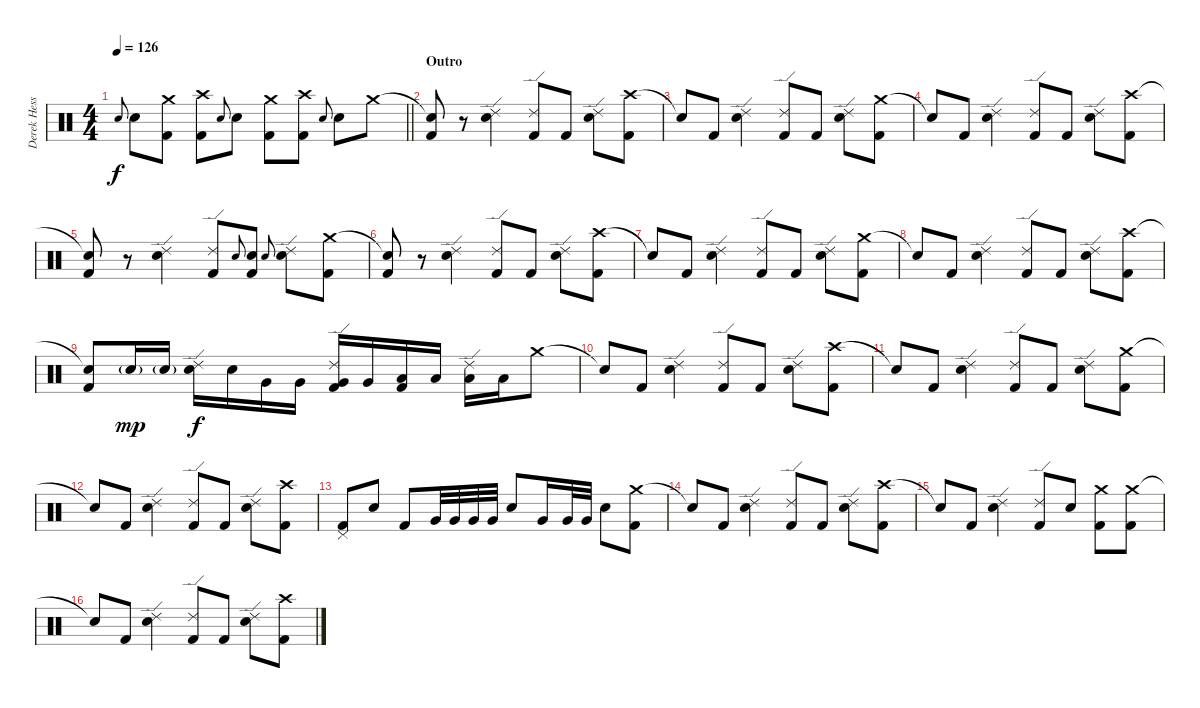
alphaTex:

\track ("Derek Hess - Drums and Percussion" "Derek Hess") {instrument percussion}
\staff {score}
\articulation defaults
\ts (4 4)
\tempo 126
\clef neutral
\barLineRight lightlight
\ks c "Snare (hit) 2".8{gr onbeat dy f} "Snare (hit) 2".8
("Crash medium (hit)" "Kick (hit) 2").8 ("Crash high (hit)" "Kick (hit) 2").8 "Snare (hit) 2".8{gr onbeat} "Snare (hit) 2".8 ("Crash medium (hit)" "Kick (hit) 2").8 ("Crash high (hit)" "Kick (hit) 2").8 "Snare (hit) 2".8{gr onbeat} "Snare (hit) 2".8 "Crash medium (hit)".8 |
\section ("" "Outro")
("Snare (hit)"{t} "Kick (hit) 2").8 r.8 ("Ride (edge) 2" "Snare (hit) 2").4 ("Ride (edge) 2" "Kick (hit) 2").8 "Kick (hit) 2".8 ("Ride (edge) 2" "Snare (hit) 2").8 ("Crash high (hit)" "Kick (hit) 2").8 |
"Snare (hit)"{t}.8 "Kick (hit) 2".8 ("Ride (edge) 2" "Snare (hit) 2").4 ("Ride (edge) 2" "Kick (hit) 2").8 "Kick (hit) 2".8 ("Ride (edge) 2" "Snare (hit) 2").8 ("Crash medium (hit)" "Kick (hit) 2").8 |
"Snare (hit)"{t}.8 "Kick (hit) 2".8 ("Ride (edge) 2" "Snare (hit) 2").4 ("Ride (edge) 2" "Kick (hit) 2").8 "Kick (hit) 2".8 ("Ride (edge) 2" "Snare (hit) 2").8 ("Crash high (hit)" "Kick (hit) 2").8 |
("Snare (hit)"{t} "Kick (hit) 2").8 r.8 ("Ride (edge) 2" "Snare (hit) 2").4 ("Ride (edge) 2" "Kick (hit) 2").8 "Snare (hit) 2".8{gr onbeat} ("Snare (hit) 2" "Kick (hit) 2").8 "Snare (hit) 2".8{gr onbeat} ("Ride (edge) 2" "Snare (hit) 2").8 ("Crash medium (hit)" "Kick (hit) 2").8 |
("Snare (hit)"{t} "Kick (hit) 2").8 r.8 ("Ride (edge) 2" "Snare (hit) 2").4 ("Ride (edge) 2" "Kick (hit) 2").8 "Kick (hit) 2".8 ("Ride (edge) 2" "Snare (hit) 2").8 ("Crash high (hit)" "Kick (hit) 2").8 |
"Snare (hit)"{t}.8 "Kick (hit) 2".8 ("Ride (edge) 2" "Snare (hit) 2").4 ("Ride (edge) 2" "Kick (hit) 2").8 "Kick (hit) 2".8 ("Ride (edge) 2" "Snare (hit) 2").8 ("Crash medium (hit)" "Kick (hit) 2").8 |
"Snare (hit)"{t}.8 "Kick (hit) 2".8 ("Ride (edge) 2" "Snare (hit) 2").4 ("Ride (edge) 2" "Kick (hit) 2").8 "Kick (hit) 2".8 ("Ride (edge) 2" "Snare (hit) 2").8 ("Crash high (hit)" "Kick (hit) 2").8 |
("Snare (hit)"{t} "Kick (hit) 2").8 "Snare (hit) 2"{g}.16{dy mp} "Snare (hit) 2"{g}.16 ("Ride (edge) 2" "Snare (hit) 2").16{dy f} "Snare (hit) 2".16 "Very Low Tom (hit)".16 "Very Low Tom (hit)".16 ("Ride (edge) 2" "Very Low Tom (hit)" "Kick (hit) 2").16 "Very Low Tom (hit)".16 ("Low Tom (hit)" "Kick (hit) 2").16 "Low Tom (hit)".16 ("Ride (edge) 2" "Low Tom (hit)").16 "Low Tom (hit)".16 "Crash medium (hit)".8 |
"Snare (hit)"{t}.8 "Kick (hit) 2".8 ("Ride (edge) 2" "Snare (hit) 2").4 ("Ride (edge) 2" "Kick (hit) 2").8 "Kick (hit) 2".8 ("Ride (edge) 2" "Snare (hit) 2").8 ("Crash high (hit)" "Kick (hit) 2").8 |
"Snare (hit)"{t}.8 "Kick (hit) 2".8 ("Ride (edge) 2" "Snare (hit) 2").4 ("Ride (edge) 2" "Kick (hit) 2").8 "Kick (hit) 2".8 ("Ride (edge) 2" "Snare (hit) 2").8 ("Crash medium (hit)" "Kick (hit) 2").8 |
"Snare (hit)"{t}.8 "Kick (hit) 2".8 ("Ride (edge) 2" "Snare (hit) 2").4 ("Ride (edge) 2" "Kick (hit) 2").8 "Kick (hit) 2".8 ("Ride (edge) 2" "Snare (hit) 2").8 ("Crash high (hit)" "Kick (hit) 2").8 |
("Pedal Hi-Hat (hit)" "Kick (hit) 2").8 "Snare (hit) 2".8 "Kick (hit) 2".8 "Very Low Tom (hit)".32 "Very Low Tom (hit)".32 "Very Low Tom (hit)".32 "Very Low Tom (hit)".32 "Snare (hit) 2".8 "Very Low Tom (hit)".16 "Very Low Tom (hit)".32 "Very Low Tom (hit)".32 "Snare (hit) 2".8 ("Crash medium (hit)" "Kick (hit) 2").8 |
"Snare (hit)"{t}.8 "Kick (hit) 2".8 ("Ride (edge) 2" "Snare (hit) 2").4 ("Ride (edge) 2" "Kick (hit) 2").8 "Kick (hit) 2".8 ("Ride (edge) 2" "Snare (hit) 2").8 ("Crash high (hit)" "Kick (hit) 2").8 |
"Snare (hit)"{t}.8 "Kick (hit) 2".8 ("Ride (edge) 2" "Snare (hit) 2").4 ("Ride (edge) 2" "Kick (hit) 2").8 "Snare (hit) 2".8 ("Crash medium (hit)" "Kick (hit) 2").8 ("Crash medium (hit)" "Kick (hit) 2").8 |
"Snare (hit)"{t}.8 "Kick (hit) 2".8 ("Ride (edge) 2" "Snare (hit) 2").4 ("Ride (edge) 2" "Kick (hit) 2").8 "Kick (hit) 2".8 ("Ride (edge) 2" "Snare (hit) 2").8 ("Crash high (hit)" "Kick (hit) 2").8
